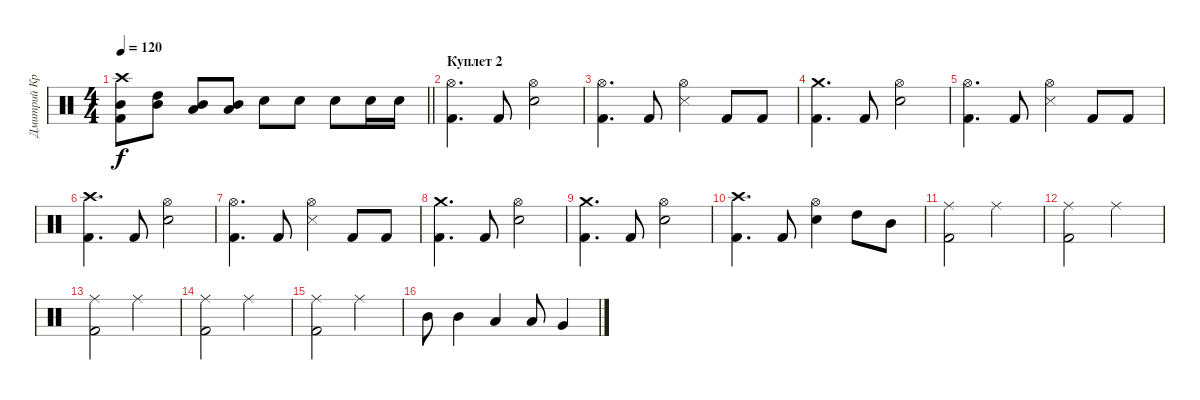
\track ("Дмитрий Кривенков       (Ударные)" "Дмитрий Кр") {instrument percussion}
\staff {score}
\articulation defaults
\ts (4 4)
\tempo 120
\clef neutral
\barLineRight lightlight
\ks c
("Crash high (hit)" "Mid Tom (hit)" "Kick (hit) 2").8{dy f} ("High Tom (hit)" "Mid Tom (hit)").8 ("Mid Tom (hit)" "Low Tom (hit)").8 ("Mid Tom (hit)" "Low Tom (hit)").8 "Electric Snare (hit)".8 "Electric Snare (hit)".8 "Electric Snare (hit)".8 "Electric Snare (hit)".16 "Electric Snare (hit)".16 |
\section ("" "Куплет 2")
("Hi-Hat (open)" "Kick (hit) 2").4{d} "Kick (hit) 2".8 ("Hi-Hat (open)" "Electric Snare (hit)").2 |
("Hi-Hat (open)" "Kick (hit) 2").4{d} "Kick (hit) 2".8 ("Snare (side stick) 3" "Hi-Hat (open)").4 "Kick (hit) 2".8 "Kick (hit) 2".8 |
("Crash medium (hit)" "Kick (hit) 2").4{d} "Kick (hit) 2".8 ("Hi-Hat (open)" "Electric Snare (hit)").2 |
("Hi-Hat (open)" "Kick (hit) 2").4{d} "Kick (hit) 2".8 ("Snare (side stick) 3" "Hi-Hat (open)").4 "Kick (hit) 2".8 "Kick (hit) 2".8 |
("Crash high (hit)" "Kick (hit) 2").4{d} "Kick (hit) 2".8 ("Hi-Hat (open)" "Electric Snare (hit)").2 |
("Hi-Hat (open)" "Kick (hit) 2").4{d} "Kick (hit) 2".8 ("Snare (side stick) 3" "Hi-Hat (open)").4 "Kick (hit) 2".8 "Kick (hit) 2".8 |
("Crash medium (hit)" "Kick (hit) 2").4{d} "Kick (hit) 2".8 ("Hi-Hat (open)" "Electric Snare (hit)").2 |
("Crash medium (hit)" "Kick (hit) 2").4{d} "Kick (hit) 2".8 ("Hi-Hat (open)" "Electric Snare (hit)").2 |
("Crash high (hit)" "Kick (hit) 2").4{d} "Kick (hit) 2".8 ("Hi-Hat (open)" "Electric Snare (hit)").4 "High Tom (hit)".8 "Mid Tom (hit)".8 |
("Ride (middle)" "Kick (hit) 2").2 "Ride (middle)".2 |
("Ride (middle)" "Kick (hit) 2").2 "Ride (middle)".2 |
("Ride (middle)" "Kick (hit) 2").2 "Ride (middle)".2 |
("Ride (middle)" "Kick (hit) 2").2 "Ride (middle)".2 |
("Ride (middle)" "Kick (hit) 2").2 "Ride (middle)".2 |
"Mid Tom (hit)".8 "Mid Tom (hit)".4 "Low Tom (hit)".4 "Low Tom (hit)".8 "Very Low Tom (hit)".4
